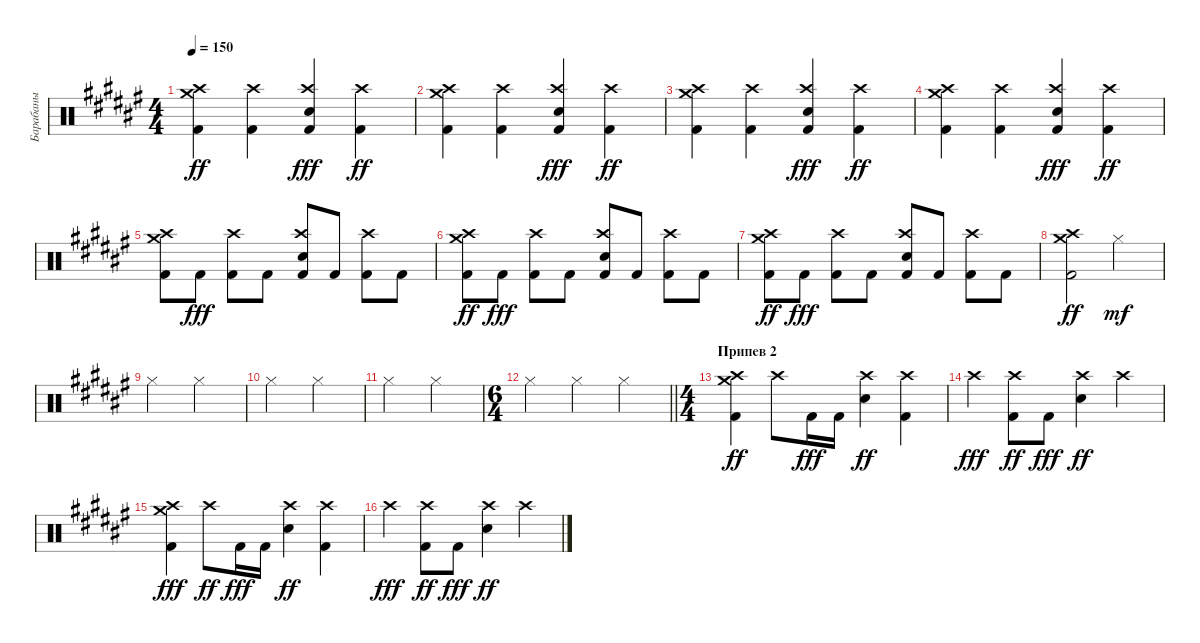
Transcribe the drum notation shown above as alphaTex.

\track ("Барабаны" "Барабаны") {instrument percussion}
\staff {score}
\articulation defaults
\ts (4 4)
\tempo 150
\clef neutral
\ks d#minor
("Kick (hit) 2" "Crash high (hit)" "Crash medium (hit)").4{dy ff} ("Kick (hit) 2" "Crash high (hit)").4 ("Kick (hit) 2" "Crash high (hit)" "Electric Snare (hit)").4{dy fff} ("Kick (hit) 2" "Crash high (hit)").4{dy ff} |
("Kick (hit) 2" "Crash high (hit)" "Crash medium (hit)").4 ("Kick (hit) 2" "Crash high (hit)").4 ("Kick (hit) 2" "Crash high (hit)" "Electric Snare (hit)").4{dy fff} ("Kick (hit) 2" "Crash high (hit)").4{dy ff} |
("Kick (hit) 2" "Crash high (hit)" "Crash medium (hit)").4 ("Kick (hit) 2" "Crash high (hit)").4 ("Kick (hit) 2" "Crash high (hit)" "Electric Snare (hit)").4{dy fff} ("Kick (hit) 2" "Crash high (hit)").4{dy ff} |
("Kick (hit) 2" "Crash high (hit)" "Crash medium (hit)").4 ("Kick (hit) 2" "Crash high (hit)").4 ("Kick (hit) 2" "Crash high (hit)" "Electric Snare (hit)").4{dy fff} ("Kick (hit) 2" "Crash high (hit)").4{dy ff} |
("Crash high (hit)" "Kick (hit) 2" "Crash medium (hit)").8 "Kick (hit) 2".8{dy fff} ("Crash high (hit)" "Kick (hit) 2").8 "Kick (hit) 2".8 ("Crash high (hit)" "Kick (hit) 2" "Electric Snare (hit)").8 "Kick (hit) 2".8 ("Crash high (hit)" "Kick (hit) 2").8 "Kick (hit) 2".8 |
("Crash high (hit)" "Kick (hit) 2" "Crash medium (hit)").8{dy ff} "Kick (hit) 2".8{dy fff} ("Crash high (hit)" "Kick (hit) 2").8 "Kick (hit) 2".8 ("Crash high (hit)" "Kick (hit) 2" "Electric Snare (hit)").8 "Kick (hit) 2".8 ("Crash high (hit)" "Kick (hit) 2").8 "Kick (hit) 2".8 |
("Crash high (hit)" "Kick (hit) 2" "Crash medium (hit)").8{dy ff} "Kick (hit) 2".8{dy fff} ("Crash high (hit)" "Kick (hit) 2").8 "Kick (hit) 2".8 ("Crash high (hit)" "Kick (hit) 2" "Electric Snare (hit)").8 "Kick (hit) 2".8 ("Crash high (hit)" "Kick (hit) 2").8 "Kick (hit) 2".8 |
("Kick (hit) 2" "Crash high (hit)" "Crash medium (hit)").2{dy ff} "Hi-Hat (closed)".2{dy mf} |
"Hi-Hat (closed)".2 "Hi-Hat (closed)".2 |
"Hi-Hat (closed)".2 "Hi-Hat (closed)".2 |
"Hi-Hat (closed)".2 "Hi-Hat (closed)".2 |
\ts (6 4)
\barLineRight lightlight "Hi-Hat (closed)".2 "Hi-Hat (closed)".2 "Hi-Hat (closed)".2
|
\ts (4 4)
\section ("" "Припев 2")
("Kick (hit) 2" "Crash high (hit)" "Crash medium (hit)").4{dy ff} "Crash high (hit)".8 "Kick (hit) 2".16{dy fff} "Kick (hit) 2".16 ("Electric Snare (hit)" "Crash high (hit)").4{dy ff} ("Kick (hit) 2" "Crash high (hit)").4 |
"Crash high (hit)".4{dy fff} ("Kick (hit) 2" "Crash high (hit)").8{dy ff} "Kick (hit) 2".8{dy fff} ("Electric Snare (hit)" "Crash high (hit)").4{dy ff} "Crash high (hit)".4 |
("Kick (hit) 2" "Crash high (hit)" "Crash medium (hit)").4{dy fff} "Crash high (hit)".8{dy ff} "Kick (hit) 2".16{dy fff} "Kick (hit) 2".16 ("Electric Snare (hit)" "Crash high (hit)").4{dy ff} ("Kick (hit) 2" "Crash high (hit)").4 |
"Crash high (hit)".4{dy fff} ("Kick (hit) 2" "Crash high (hit)").8{dy ff} "Kick (hit) 2".8{dy fff} ("Electric Snare (hit)" "Crash high (hit)").4{dy ff} "Crash high (hit)".4
